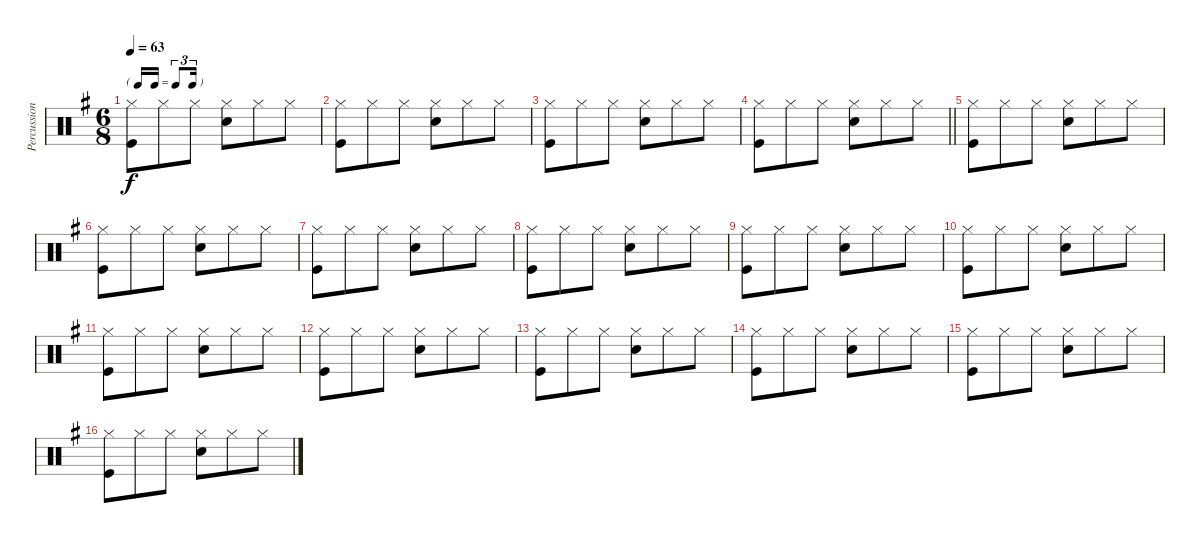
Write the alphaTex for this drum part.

\track ("Percussion" "Percussion") {instrument percussion}
\staff {score}
\articulation defaults
\ts (6 8)
\tf triplet16th
\tempo 63
\clef neutral
\ks g
("Hi-Hat (closed)" "Kick (hit)").8{dy f} "Hi-Hat (closed)".8 "Hi-Hat (closed)".8 ("Hi-Hat (closed)" "Electric Snare (hit)").8 "Hi-Hat (closed)".8 "Hi-Hat (closed)".8 |
("Hi-Hat (closed)" "Kick (hit)").8 "Hi-Hat (closed)".8 "Hi-Hat (closed)".8 ("Hi-Hat (closed)" "Electric Snare (hit)").8 "Hi-Hat (closed)".8 "Hi-Hat (closed)".8 |
("Hi-Hat (closed)" "Kick (hit)").8 "Hi-Hat (closed)".8 "Hi-Hat (closed)".8 ("Hi-Hat (closed)" "Electric Snare (hit)").8 "Hi-Hat (closed)".8 "Hi-Hat (closed)".8 |
\barLineRight lightlight
("Hi-Hat (closed)" "Kick (hit)").8 "Hi-Hat (closed)".8 "Hi-Hat (closed)".8 ("Hi-Hat (closed)" "Electric Snare (hit)").8 "Hi-Hat (closed)".8 "Hi-Hat (closed)".8 |
("Hi-Hat (closed)" "Kick (hit)").8 "Hi-Hat (closed)".8 "Hi-Hat (closed)".8 ("Hi-Hat (closed)" "Electric Snare (hit)").8 "Hi-Hat (closed)".8 "Hi-Hat (closed)".8 |
("Hi-Hat (closed)" "Kick (hit)").8 "Hi-Hat (closed)".8 "Hi-Hat (closed)".8 ("Hi-Hat (closed)" "Electric Snare (hit)").8 "Hi-Hat (closed)".8 "Hi-Hat (closed)".8 |
("Hi-Hat (closed)" "Kick (hit)").8 "Hi-Hat (closed)".8 "Hi-Hat (closed)".8 ("Hi-Hat (closed)" "Electric Snare (hit)").8 "Hi-Hat (closed)".8 "Hi-Hat (closed)".8 |
("Hi-Hat (closed)" "Kick (hit)").8 "Hi-Hat (closed)".8 "Hi-Hat (closed)".8 ("Hi-Hat (closed)" "Electric Snare (hit)").8 "Hi-Hat (closed)".8 "Hi-Hat (closed)".8 |
("Hi-Hat (closed)" "Kick (hit)").8 "Hi-Hat (closed)".8 "Hi-Hat (closed)".8 ("Hi-Hat (closed)" "Electric Snare (hit)").8 "Hi-Hat (closed)".8 "Hi-Hat (closed)".8 |
("Hi-Hat (closed)" "Kick (hit)").8 "Hi-Hat (closed)".8 "Hi-Hat (closed)".8 ("Hi-Hat (closed)" "Electric Snare (hit)").8 "Hi-Hat (closed)".8 "Hi-Hat (closed)".8 |
("Hi-Hat (closed)" "Kick (hit)").8 "Hi-Hat (closed)".8 "Hi-Hat (closed)".8 ("Hi-Hat (closed)" "Electric Snare (hit)").8 "Hi-Hat (closed)".8 "Hi-Hat (closed)".8 |
("Hi-Hat (closed)" "Kick (hit)").8 "Hi-Hat (closed)".8 "Hi-Hat (closed)".8 ("Hi-Hat (closed)" "Electric Snare (hit)").8 "Hi-Hat (closed)".8 "Hi-Hat (closed)".8 |
("Hi-Hat (closed)" "Kick (hit)").8 "Hi-Hat (closed)".8 "Hi-Hat (closed)".8 ("Hi-Hat (closed)" "Electric Snare (hit)").8 "Hi-Hat (closed)".8 "Hi-Hat (closed)".8 |
("Hi-Hat (closed)" "Kick (hit)").8 "Hi-Hat (closed)".8 "Hi-Hat (closed)".8 ("Hi-Hat (closed)" "Electric Snare (hit)").8 "Hi-Hat (closed)".8 "Hi-Hat (closed)".8 |
("Hi-Hat (closed)" "Kick (hit)").8 "Hi-Hat (closed)".8 "Hi-Hat (closed)".8 ("Hi-Hat (closed)" "Electric Snare (hit)").8 "Hi-Hat (closed)".8 "Hi-Hat (closed)".8 |
("Hi-Hat (closed)" "Kick (hit)").8 "Hi-Hat (closed)".8 "Hi-Hat (closed)".8 ("Hi-Hat (closed)" "Electric Snare (hit)").8 "Hi-Hat (closed)".8 "Hi-Hat (closed)".8
